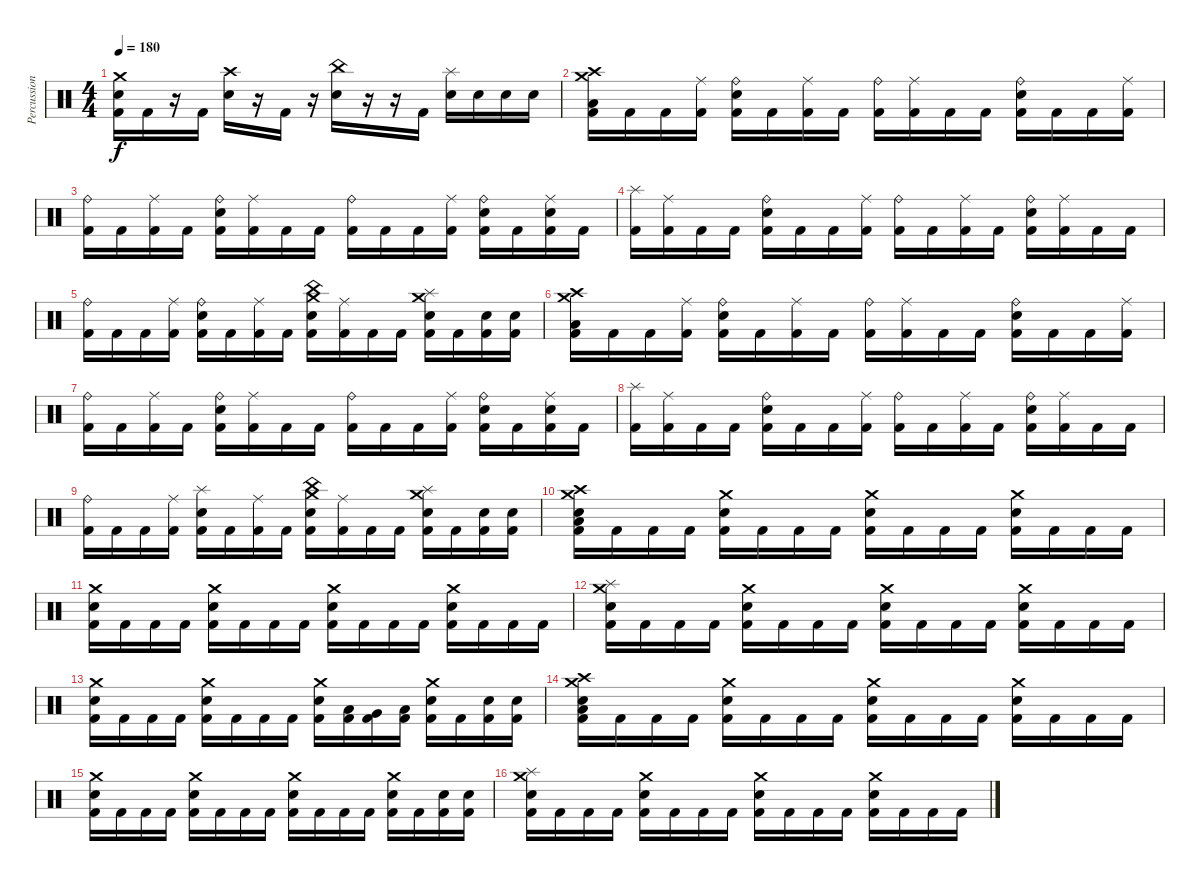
\track ("Percussion" "Percussion") {instrument percussion}
\staff {score}
\articulation defaults
\ts (4 4)
\tempo 180
\clef neutral
\ks c
("Crash medium (hit)" "Electric Snare (hit)" "Kick (hit) 2").16{dy f} "Kick (hit) 2".16 r.16 "Kick (hit) 2".16 ("Crash high (hit)" "Electric Snare (hit)").16 r.16 "Kick (hit) 2".16 r.16 ("China (hit)" "Electric Snare (hit)").16 r.16 r.16 "Kick (hit) 2".16 ("Splash (hit)" "Electric Snare (hit)").16 "Electric Snare (hit)".16 "Electric Snare (hit)".16 "Electric Snare (hit)".16 |
("Crash high (hit)" "Crash medium (hit)" "Low Floor Tom (hit)" "Kick (hit) 2").16 "Kick (hit) 2".16 "Kick (hit) 2".16 ("Ride (middle)" "Kick (hit) 2").16 ("Ride (bell)" "Electric Snare (hit)" "Kick (hit) 2").16 "Kick (hit) 2".16 ("Ride (middle)" "Kick (hit) 2").16 "Kick (hit) 2".16 ("Ride (bell)" "Kick (hit) 2").16 ("Ride (middle)" "Kick (hit) 2").16 "Kick (hit) 2".16 "Kick (hit) 2".16 ("Ride (bell)" "Electric Snare (hit)" "Kick (hit) 2").16 "Kick (hit) 2".16 "Kick (hit) 2".16 ("Ride (middle)" "Kick (hit) 2").16 |
("Ride (bell)" "Kick (hit) 2").16 "Kick (hit) 2".16 ("Ride (middle)" "Kick (hit) 2").16 "Kick (hit) 2".16 ("Ride (bell)" "Electric Snare (hit)" "Kick (hit) 2").16 ("Ride (middle)" "Kick (hit) 2").16 "Kick (hit) 2".16 "Kick (hit) 2".16 ("Ride (bell)" "Kick (hit) 2").16 "Kick (hit) 2".16 "Kick (hit) 2".16 ("Ride (middle)" "Kick (hit) 2").16 ("Ride (bell)" "Electric Snare (hit)" "Kick (hit) 2").16 "Kick (hit) 2".16 ("Ride (middle)" "Electric Snare (hit)" "Kick (hit) 2").16 "Kick (hit) 2".16 |
("Splash (hit)" "Kick (hit) 2").16 ("Ride (middle)" "Kick (hit) 2").16 "Kick (hit) 2".16 "Kick (hit) 2".16 ("Ride (bell)" "Electric Snare (hit)" "Kick (hit) 2").16 "Kick (hit) 2".16 "Kick (hit) 2".16 ("Ride (middle)" "Kick (hit) 2").16 ("Ride (bell)" "Kick (hit) 2").16 "Kick (hit) 2".16 ("Ride (middle)" "Kick (hit) 2").16 "Kick (hit) 2".16 ("Ride (bell)" "Electric Snare (hit)" "Kick (hit) 2").16 ("Ride (middle)" "Kick (hit) 2").16 "Kick (hit) 2".16 "Kick (hit) 2".16 |
("Ride (bell)" "Kick (hit) 2").16 "Kick (hit) 2".16 "Kick (hit) 2".16 ("Ride (middle)" "Kick (hit) 2").16 ("Ride (bell)" "Electric Snare (hit)" "Kick (hit) 2").16 "Kick (hit) 2".16 ("Ride (middle)" "Kick (hit) 2").16 "Kick (hit) 2".16 ("Crash medium (hit)" "China (hit)" "Electric Snare (hit)" "Kick (hit) 2").16 ("Ride (middle)" "Kick (hit) 2").16 "Kick (hit) 2".16 "Kick (hit) 2".16 ("Crash medium (hit)" "Splash (hit)" "Electric Snare (hit)" "Kick (hit) 2").16 "Kick (hit) 2".16 ("Electric Snare (hit)" "Kick (hit) 2").16 ("Electric Snare (hit)" "Kick (hit) 2").16 |
("Crash high (hit)" "Crash medium (hit)" "Low Floor Tom (hit)" "Kick (hit) 2").16 "Kick (hit) 2".16 "Kick (hit) 2".16 ("Ride (middle)" "Kick (hit) 2").16 ("Ride (bell)" "Electric Snare (hit)" "Kick (hit) 2").16 "Kick (hit) 2".16 ("Ride (middle)" "Kick (hit) 2").16 "Kick (hit) 2".16 ("Ride (bell)" "Kick (hit) 2").16 ("Ride (middle)" "Kick (hit) 2").16 "Kick (hit) 2".16 "Kick (hit) 2".16 ("Ride (bell)" "Electric Snare (hit)" "Kick (hit) 2").16 "Kick (hit) 2".16 "Kick (hit) 2".16 ("Ride (middle)" "Kick (hit) 2").16 |
("Ride (bell)" "Kick (hit) 2").16 "Kick (hit) 2".16 ("Ride (middle)" "Kick (hit) 2").16 "Kick (hit) 2".16 ("Ride (bell)" "Electric Snare (hit)" "Kick (hit) 2").16 ("Ride (middle)" "Kick (hit) 2").16 "Kick (hit) 2".16 "Kick (hit) 2".16 ("Ride (bell)" "Kick (hit) 2").16 "Kick (hit) 2".16 "Kick (hit) 2".16 ("Ride (middle)" "Kick (hit) 2").16 ("Ride (bell)" "Electric Snare (hit)" "Kick (hit) 2").16 "Kick (hit) 2".16 ("Ride (middle)" "Electric Snare (hit)" "Kick (hit) 2").16 "Kick (hit) 2".16 |
("Splash (hit)" "Kick (hit) 2").16 ("Ride (middle)" "Kick (hit) 2").16 "Kick (hit) 2".16 "Kick (hit) 2".16 ("Ride (bell)" "Electric Snare (hit)" "Kick (hit) 2").16 "Kick (hit) 2".16 "Kick (hit) 2".16 ("Ride (middle)" "Kick (hit) 2").16 ("Ride (bell)" "Kick (hit) 2").16 "Kick (hit) 2".16 ("Ride (middle)" "Kick (hit) 2").16 "Kick (hit) 2".16 ("Ride (bell)" "Electric Snare (hit)" "Kick (hit) 2").16 ("Ride (middle)" "Kick (hit) 2").16 "Kick (hit) 2".16 "Kick (hit) 2".16 |
("Ride (bell)" "Kick (hit) 2").16 "Kick (hit) 2".16 "Kick (hit) 2".16 ("Ride (middle)" "Kick (hit) 2").16 ("Splash (hit)" "Electric Snare (hit)" "Kick (hit) 2").16 "Kick (hit) 2".16 ("Ride (middle)" "Kick (hit) 2").16 "Kick (hit) 2".16 ("Crash medium (hit)" "China (hit)" "Electric Snare (hit)" "Kick (hit) 2").16 ("Ride (middle)" "Kick (hit) 2").16 "Kick (hit) 2".16 "Kick (hit) 2".16 ("Crash medium (hit)" "Splash (hit)" "Electric Snare (hit)" "Kick (hit) 2").16 "Kick (hit) 2".16 ("Electric Snare (hit)" "Kick (hit) 2").16 ("Electric Snare (hit)" "Kick (hit) 2").16 |
("Crash high (hit)" "Crash medium (hit)" "Electric Snare (hit)" "Low Floor Tom (hit)" "Kick (hit) 2").16 "Kick (hit) 2".16 "Kick (hit) 2".16 "Kick (hit) 2".16 ("Crash medium (hit)" "Electric Snare (hit)" "Kick (hit) 2").16 "Kick (hit) 2".16 "Kick (hit) 2".16 "Kick (hit) 2".16 ("Crash medium (hit)" "Electric Snare (hit)" "Kick (hit) 2").16 "Kick (hit) 2".16 "Kick (hit) 2".16 "Kick (hit) 2".16 ("Crash medium (hit)" "Electric Snare (hit)" "Kick (hit) 2").16 "Kick (hit) 2".16 "Kick (hit) 2".16 "Kick (hit) 2".16 |
("Crash medium (hit)" "Electric Snare (hit)" "Kick (hit) 2").16 "Kick (hit) 2".16 "Kick (hit) 2".16 "Kick (hit) 2".16 ("Crash medium (hit)" "Electric Snare (hit)" "Kick (hit) 2").16 "Kick (hit) 2".16 "Kick (hit) 2".16 "Kick (hit) 2".16 ("Crash medium (hit)" "Electric Snare (hit)" "Kick (hit) 2").16 "Kick (hit) 2".16 "Kick (hit) 2".16 "Kick (hit) 2".16 ("Crash medium (hit)" "Electric Snare (hit)" "Kick (hit) 2").16 "Kick (hit) 2".16 "Kick (hit) 2".16 "Kick (hit) 2".16 |
("Crash medium (hit)" "Splash (hit)" "Electric Snare (hit)" "Kick (hit) 2").16 "Kick (hit) 2".16 "Kick (hit) 2".16 "Kick (hit) 2".16 ("Crash medium (hit)" "Electric Snare (hit)" "Kick (hit) 2").16 "Kick (hit) 2".16 "Kick (hit) 2".16 "Kick (hit) 2".16 ("Crash medium (hit)" "Electric Snare (hit)" "Kick (hit) 2").16 "Kick (hit) 2".16 "Kick (hit) 2".16 "Kick (hit) 2".16 ("Crash medium (hit)" "Electric Snare (hit)" "Kick (hit) 2").16 "Kick (hit) 2".16 "Kick (hit) 2".16 "Kick (hit) 2".16 |
("Crash medium (hit)" "Electric Snare (hit)" "Kick (hit) 2").16 "Kick (hit) 2".16 "Kick (hit) 2".16 "Kick (hit) 2".16 ("Crash medium (hit)" "Electric Snare (hit)" "Kick (hit) 2").16 "Kick (hit) 2".16 "Kick (hit) 2".16 "Kick (hit) 2".16 ("Crash medium (hit)" "Electric Snare (hit)" "Kick (hit) 2").16 ("Low Tom (hit)" "Kick (hit) 2").16 ("Very Low Tom (hit)" "Kick (hit) 2").16 ("Low Floor Tom (hit)" "Kick (hit) 2").16 ("Crash medium (hit)" "Electric Snare (hit)" "Kick (hit) 2").16 "Kick (hit) 2".16 ("Electric Snare (hit)" "Kick (hit) 2").16 ("Electric Snare (hit)" "Kick (hit) 2").16 |
("Crash high (hit)" "Crash medium (hit)" "Electric Snare (hit)" "Low Floor Tom (hit)" "Kick (hit) 2").16 "Kick (hit) 2".16 "Kick (hit) 2".16 "Kick (hit) 2".16 ("Crash medium (hit)" "Electric Snare (hit)" "Kick (hit) 2").16 "Kick (hit) 2".16 "Kick (hit) 2".16 "Kick (hit) 2".16 ("Crash medium (hit)" "Electric Snare (hit)" "Kick (hit) 2").16 "Kick (hit) 2".16 "Kick (hit) 2".16 "Kick (hit) 2".16 ("Crash medium (hit)" "Electric Snare (hit)" "Kick (hit) 2").16 "Kick (hit) 2".16 "Kick (hit) 2".16 "Kick (hit) 2".16 |
("Crash medium (hit)" "Electric Snare (hit)" "Kick (hit) 2").16 "Kick (hit) 2".16 "Kick (hit) 2".16 "Kick (hit) 2".16 ("Crash medium (hit)" "Electric Snare (hit)" "Kick (hit) 2").16 "Kick (hit) 2".16 "Kick (hit) 2".16 "Kick (hit) 2".16 ("Crash medium (hit)" "Electric Snare (hit)" "Kick (hit) 2").16 "Kick (hit) 2".16 "Kick (hit) 2".16 "Kick (hit) 2".16 ("Crash medium (hit)" "Electric Snare (hit)" "Kick (hit) 2").16 "Kick (hit) 2".16 ("Electric Snare (hit)" "Kick (hit) 2").16 ("Electric Snare (hit)" "Kick (hit) 2").16 |
("Crash medium (hit)" "Splash (hit)" "Electric Snare (hit)" "Kick (hit) 2").16 "Kick (hit) 2".16 "Kick (hit) 2".16 "Kick (hit) 2".16 ("Crash medium (hit)" "Electric Snare (hit)" "Kick (hit) 2").16 "Kick (hit) 2".16 "Kick (hit) 2".16 "Kick (hit) 2".16 ("Crash medium (hit)" "Electric Snare (hit)" "Kick (hit) 2").16 "Kick (hit) 2".16 "Kick (hit) 2".16 "Kick (hit) 2".16 ("Crash medium (hit)" "Electric Snare (hit)" "Kick (hit) 2").16 "Kick (hit) 2".16 "Kick (hit) 2".16 "Kick (hit) 2".16
